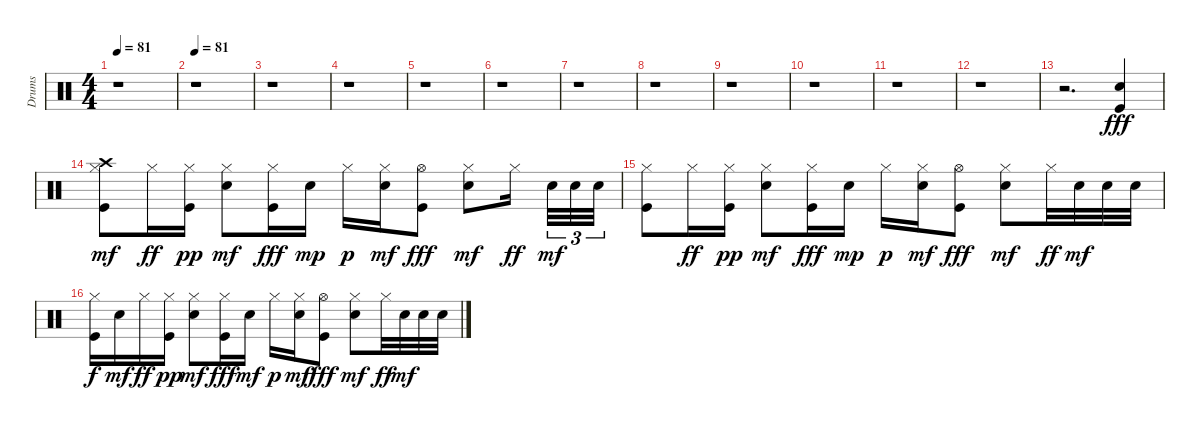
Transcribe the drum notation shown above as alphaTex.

\track ("Drums" "Drums") {instrument percussion}
\staff {score}
\articulation defaults
\ts (4 4)
\tempo 81
\clef neutral
\ks c
r.1{dy fff} |
\tempo 81
r.1 |
r.1 |
r.1 |
r.1 |
r.1 |
r.1 |
r.1 |
r.1 |
r.1 |
r.1 |
r.1 |
r.2{d} ("Kick (hit)" "Snare (hit) 2").4{volume 15 balance 8} |
("Kick (hit)" "Crash high (hit)" "Hi-Hat (closed)").8{dy mf} "Hi-Hat (closed)".16{dy ff} ("Kick (hit)" "Hi-Hat (closed)").16{dy pp} ("Snare (hit) 2" "Hi-Hat (closed)").8{dy mf} ("Kick (hit)" "Hi-Hat (closed)").16{dy fff} "Snare (hit) 2".16{dy mp} "Hi-Hat (closed)".16{dy p} ("Snare (hit) 2" "Hi-Hat (closed)").16{dy mf} ("Kick (hit)" "Hi-Hat (open)").8{dy fff} ("Snare (hit) 2" "Hi-Hat (closed)").8{dy mf} "Hi-Hat (closed)".16{dy ff} "Snare (hit) 2".32{tu (3 2) dy mf} "Snare (hit) 2".32{tu (3 2)} "Snare (hit) 2".32{tu (3 2)} |
("Kick (hit)" "Hi-Hat (closed)").8 "Hi-Hat (closed)".16{dy ff} ("Kick (hit)" "Hi-Hat (closed)").16{dy pp} ("Snare (hit) 2" "Hi-Hat (closed)").8{dy mf} ("Kick (hit)" "Hi-Hat (closed)").16{dy fff} "Snare (hit) 2".16{dy mp} "Hi-Hat (closed)".16{dy p} ("Snare (hit) 2" "Hi-Hat (closed)").16{dy mf} ("Kick (hit)" "Hi-Hat (open)").8{dy fff} ("Snare (hit) 2" "Hi-Hat (closed)").8{dy mf} "Hi-Hat (closed)".32{dy ff} "Snare (hit) 2".32{dy mf} "Snare (hit) 2".32 "Snare (hit) 2".32 |
("Hi-Hat (closed)" "Kick (hit)").16{dy f} "Snare (hit) 2".16{dy mf} "Hi-Hat (closed)".16{dy ff} ("Kick (hit)" "Hi-Hat (closed)").16{dy pp} ("Snare (hit) 2" "Hi-Hat (closed)").8{dy mf} ("Kick (hit)" "Hi-Hat (closed)").16{dy fff} "Snare (hit) 2".16{dy mf} "Hi-Hat (closed)".16{dy p} ("Snare (hit) 2" "Hi-Hat (closed)").16{dy mf} ("Kick (hit)" "Hi-Hat (open)").8{dy fff} ("Snare (hit) 2" "Hi-Hat (closed)").8{dy mf} "Hi-Hat (closed)".32{dy ff} "Snare (hit) 2".32{dy mf} "Snare (hit) 2".32 "Snare (hit) 2".32
